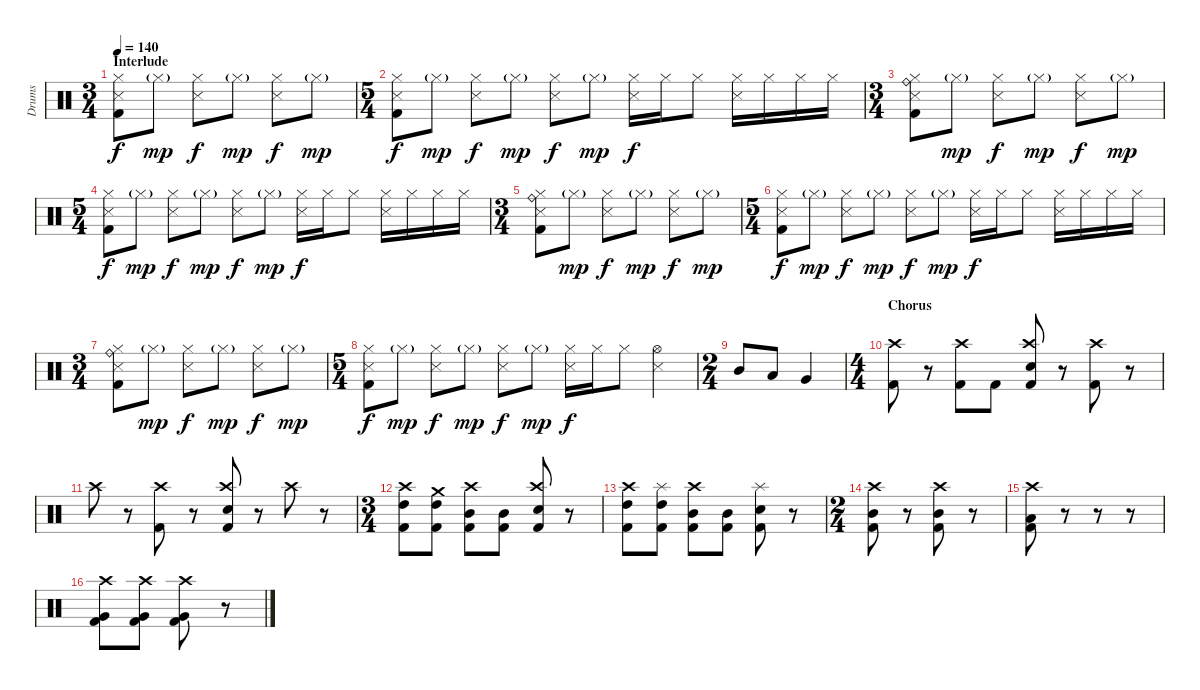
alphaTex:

\track ("Drums" "Drums") {instrument percussion}
\staff {score}
\articulation defaults
\ts (3 4)
\section ("" "Interlude")
\tempo 140
\clef neutral
\ks c
("Hi-Hat (closed)" "Snare (side stick) 3" "Kick (hit) 2").8{dy f} "Hi-Hat (closed)"{g}.8{dy mp} ("Hi-Hat (closed)" "Snare (side stick) 3").8{dy f} "Hi-Hat (closed)"{g}.8{dy mp} ("Hi-Hat (closed)" "Snare (side stick) 3").8{dy f} "Hi-Hat (closed)"{g}.8{dy mp} |
\ts (5 4)
("Hi-Hat (closed)" "Snare (side stick) 3" "Kick (hit) 2").8{dy f} "Hi-Hat (closed)"{g}.8{dy mp} ("Hi-Hat (closed)" "Snare (side stick) 3").8{dy f} "Hi-Hat (closed)"{g}.8{dy mp} ("Hi-Hat (closed)" "Snare (side stick) 3").8{dy f} "Hi-Hat (closed)"{g}.8{dy mp} ("Hi-Hat (closed)" "Snare (side stick) 3").16{dy f} "Hi-Hat (closed)".16 "Hi-Hat (closed)".8 ("Hi-Hat (closed)" "Snare (side stick) 3").16 "Hi-Hat (closed)".16 "Hi-Hat (closed)".16 "Hi-Hat (closed)".16 |
\ts (3 4)
("Ride (bell)" "Hi-Hat (closed)" "Snare (side stick) 3" "Kick (hit) 2").8 "Hi-Hat (closed)"{g}.8{dy mp} ("Hi-Hat (closed)" "Snare (side stick) 3").8{dy f} "Hi-Hat (closed)"{g}.8{dy mp} ("Hi-Hat (closed)" "Snare (side stick) 3").8{dy f} "Hi-Hat (closed)"{g}.8{dy mp} |
\ts (5 4)
("Hi-Hat (closed)" "Snare (side stick) 3" "Kick (hit) 2").8{dy f} "Hi-Hat (closed)"{g}.8{dy mp} ("Hi-Hat (closed)" "Snare (side stick) 3").8{dy f} "Hi-Hat (closed)"{g}.8{dy mp} ("Hi-Hat (closed)" "Snare (side stick) 3").8{dy f} "Hi-Hat (closed)"{g}.8{dy mp} ("Hi-Hat (closed)" "Snare (side stick) 3").16{dy f} "Hi-Hat (closed)".16 "Hi-Hat (closed)".8 ("Hi-Hat (closed)" "Snare (side stick) 3").16 "Hi-Hat (closed)".16 "Hi-Hat (closed)".16 "Hi-Hat (closed)".16 |
\ts (3 4)
("Ride (bell)" "Hi-Hat (closed)" "Snare (side stick) 3" "Kick (hit) 2").8 "Hi-Hat (closed)"{g}.8{dy mp} ("Hi-Hat (closed)" "Snare (side stick) 3").8{dy f} "Hi-Hat (closed)"{g}.8{dy mp} ("Hi-Hat (closed)" "Snare (side stick) 3").8{dy f} "Hi-Hat (closed)"{g}.8{dy mp} |
\ts (5 4)
("Hi-Hat (closed)" "Snare (side stick) 3" "Kick (hit) 2").8{dy f} "Hi-Hat (closed)"{g}.8{dy mp} ("Hi-Hat (closed)" "Snare (side stick) 3").8{dy f} "Hi-Hat (closed)"{g}.8{dy mp} ("Hi-Hat (closed)" "Snare (side stick) 3").8{dy f} "Hi-Hat (closed)"{g}.8{dy mp} ("Hi-Hat (closed)" "Snare (side stick) 3").16{dy f} "Hi-Hat (closed)".16 "Hi-Hat (closed)".8 ("Hi-Hat (closed)" "Snare (side stick) 3").16 "Hi-Hat (closed)".16 "Hi-Hat (closed)".16 "Hi-Hat (closed)".16 |
\ts (3 4)
("Ride (bell)" "Hi-Hat (closed)" "Snare (side stick) 3" "Kick (hit) 2").8 "Hi-Hat (closed)"{g}.8{dy mp} ("Hi-Hat (closed)" "Snare (side stick) 3").8{dy f} "Hi-Hat (closed)"{g}.8{dy mp} ("Hi-Hat (closed)" "Snare (side stick) 3").8{dy f} "Hi-Hat (closed)"{g}.8{dy mp} |
\ts (5 4)
("Hi-Hat (closed)" "Snare (side stick) 3" "Kick (hit) 2").8{dy f} "Hi-Hat (closed)"{g}.8{dy mp} ("Hi-Hat (closed)" "Snare (side stick) 3").8{dy f} "Hi-Hat (closed)"{g}.8{dy mp} ("Hi-Hat (closed)" "Snare (side stick) 3").8{dy f} "Hi-Hat (closed)"{g}.8{dy mp} ("Hi-Hat (closed)" "Snare (side stick) 3").16{dy f} "Hi-Hat (closed)".16 "Hi-Hat (closed)".8 ("Hi-Hat (open)" "Snare (side stick) 3").4 |
\ts (2 4)
"Mid Tom (hit)".8 "Low Tom (hit)".8 "Very Low Tom (hit)".4 |
\ts (4 4)
\section ("" "Chorus")
("Crash high (hit)" "Kick (hit) 2").8 r.8 ("Crash high (hit)" "Kick (hit) 2").8 "Kick (hit) 2".8 ("Crash high (hit)" "Snare (hit) 2" "Kick (hit) 2").8 r.8 ("Crash high (hit)" "Kick (hit) 2").8 r.8 |
"Crash high (hit)".8 r.8 ("Crash high (hit)" "Kick (hit) 2").8 r.8 ("Crash high (hit)" "Snare (hit) 2" "Kick (hit) 2").8 r.8 "Crash high (hit)".8 r.8 |
\ts (3 4)
("Crash high (hit)" "High Tom (hit)" "Kick (hit) 2").8 ("Crash medium (hit)" "High Tom (hit)" "Kick (hit) 2").8 ("Crash high (hit)" "Mid Tom (hit)" "Kick (hit) 2").8 ("Mid Tom (hit)" "Kick (hit) 2").8 ("Crash high (hit)" "Snare (hit) 2" "Kick (hit) 2").8 r.8 |
("Crash high (hit)" "High Tom (hit)" "Kick (hit) 2").8 ("Splash (hit)" "High Tom (hit)" "Kick (hit) 2").8 ("Crash high (hit)" "Mid Tom (hit)" "Kick (hit) 2").8 ("Mid Tom (hit)" "Kick (hit) 2").8 ("Splash (hit)" "Snare (hit) 2" "Kick (hit) 2").8 r.8 |
\ts (2 4)
("Crash high (hit)" "Mid Tom (hit)" "Kick (hit) 2").8 r.8 ("Crash high (hit)" "Mid Tom (hit)" "Kick (hit) 2").8 r.8 |
("Crash high (hit)" "Low Tom (hit)" "Kick (hit) 2").8 r.8 r.8 r.8 |
("Crash high (hit)" "Very Low Tom (hit)" "Kick (hit) 2").8 ("Crash high (hit)" "Very Low Tom (hit)" "Kick (hit) 2").8 ("Crash high (hit)" "Very Low Tom (hit)" "Kick (hit) 2").8 r.8
